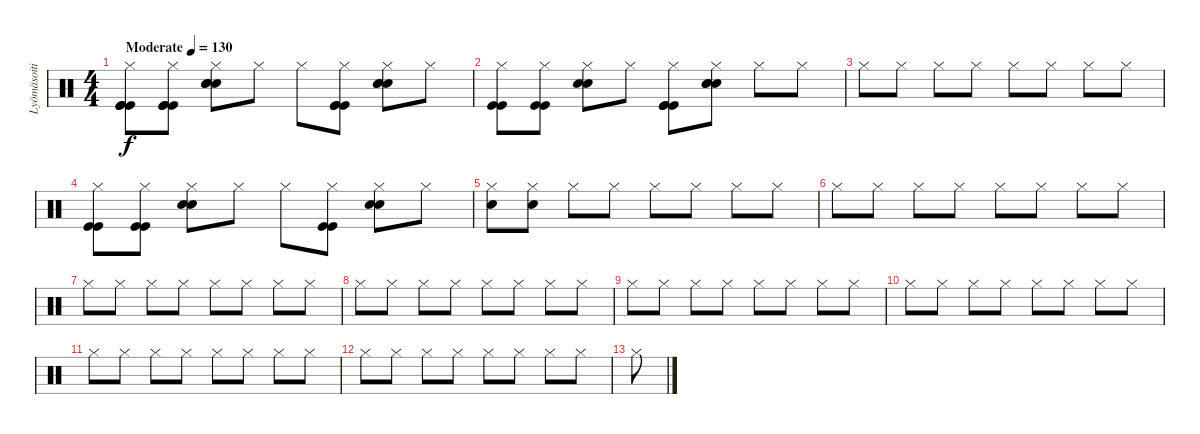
\track ("Lyömäsoitin" "Lyömäsoiti") {instrument percussion}
\staff
\articulation defaults
\ts (4 4)
\tempo (130 "Moderate")
\clef neutral
\ks c
("Hi-Hat (closed)" "Kick (hit)" "Kick (hit)" "Kick (hit)").8{dy f} ("Hi-Hat (closed)" "Kick (hit)" "Kick (hit)" "Kick (hit)").8 ("Hi-Hat (closed)" "Snare (hit) 2" "Snare (hit) 2" "Snare (hit) 2").8 "Hi-Hat (closed)".8 "Hi-Hat (closed)".8 ("Hi-Hat (closed)" "Kick (hit)" "Kick (hit)" "Kick (hit)").8 ("Hi-Hat (closed)" "Snare (hit) 2" "Snare (hit) 2" "Snare (hit) 2").8 "Hi-Hat (closed)".8 |
("Hi-Hat (closed)" "Kick (hit)" "Kick (hit)").8 ("Hi-Hat (closed)" "Kick (hit)" "Kick (hit)").8 ("Hi-Hat (closed)" "Snare (hit) 2" "Snare (hit) 2").8 "Hi-Hat (closed)".8 ("Hi-Hat (closed)" "Kick (hit)" "Kick (hit)" "Kick (hit)").8 ("Hi-Hat (closed)" "Snare (hit) 2" "Snare (hit) 2" "Snare (hit) 2").8 "Hi-Hat (closed)".8 "Hi-Hat (closed)".8 |
"Hi-Hat (closed)".8 "Hi-Hat (closed)".8 "Hi-Hat (closed)".8 "Hi-Hat (closed)".8 "Hi-Hat (closed)".8 "Hi-Hat (closed)".8 "Hi-Hat (closed)".8 "Hi-Hat (closed)".8 |
("Hi-Hat (closed)" "Kick (hit)" "Kick (hit)").8 ("Hi-Hat (closed)" "Kick (hit)" "Kick (hit)").8 ("Hi-Hat (closed)" "Snare (hit) 2" "Snare (hit) 2").8 "Hi-Hat (closed)".8 "Hi-Hat (closed)".8 ("Hi-Hat (closed)" "Kick (hit)" "Kick (hit)").8 ("Hi-Hat (closed)" "Snare (hit) 2" "Snare (hit) 2").8 "Hi-Hat (closed)".8 |
("Hi-Hat (closed)" "Snare (hit)").8 ("Hi-Hat (closed)" "Snare (hit)").8 "Hi-Hat (closed)".8 "Hi-Hat (closed)".8 "Hi-Hat (closed)".8 "Hi-Hat (closed)".8 "Hi-Hat (closed)".8 "Hi-Hat (closed)".8 |
"Hi-Hat (closed)".8 "Hi-Hat (closed)".8 "Hi-Hat (closed)".8 "Hi-Hat (closed)".8 "Hi-Hat (closed)".8 "Hi-Hat (closed)".8 "Hi-Hat (closed)".8 "Hi-Hat (closed)".8 |
"Hi-Hat (closed)".8 "Hi-Hat (closed)".8 "Hi-Hat (closed)".8 "Hi-Hat (closed)".8 "Hi-Hat (closed)".8 "Hi-Hat (closed)".8 "Hi-Hat (closed)".8 "Hi-Hat (closed)".8 |
"Hi-Hat (closed)".8 "Hi-Hat (closed)".8 "Hi-Hat (closed)".8 "Hi-Hat (closed)".8 "Hi-Hat (closed)".8 "Hi-Hat (closed)".8 "Hi-Hat (closed)".8 "Hi-Hat (closed)".8 |
"Hi-Hat (closed)".8 "Hi-Hat (closed)".8 "Hi-Hat (closed)".8 "Hi-Hat (closed)".8 "Hi-Hat (closed)".8 "Hi-Hat (closed)".8 "Hi-Hat (closed)".8 "Hi-Hat (closed)".8 |
"Hi-Hat (closed)".8 "Hi-Hat (closed)".8 "Hi-Hat (closed)".8 "Hi-Hat (closed)".8 "Hi-Hat (closed)".8 "Hi-Hat (closed)".8 "Hi-Hat (closed)".8 "Hi-Hat (closed)".8 |
"Hi-Hat (closed)".8 "Hi-Hat (closed)".8 "Hi-Hat (closed)".8 "Hi-Hat (closed)".8 "Hi-Hat (closed)".8 "Hi-Hat (closed)".8 "Hi-Hat (closed)".8 "Hi-Hat (closed)".8 |
"Hi-Hat (closed)".8 "Hi-Hat (closed)".8 "Hi-Hat (closed)".8 "Hi-Hat (closed)".8 "Hi-Hat (closed)".8 "Hi-Hat (closed)".8 "Hi-Hat (closed)".8 "Hi-Hat (closed)".8 |
"Hi-Hat (closed)".8
